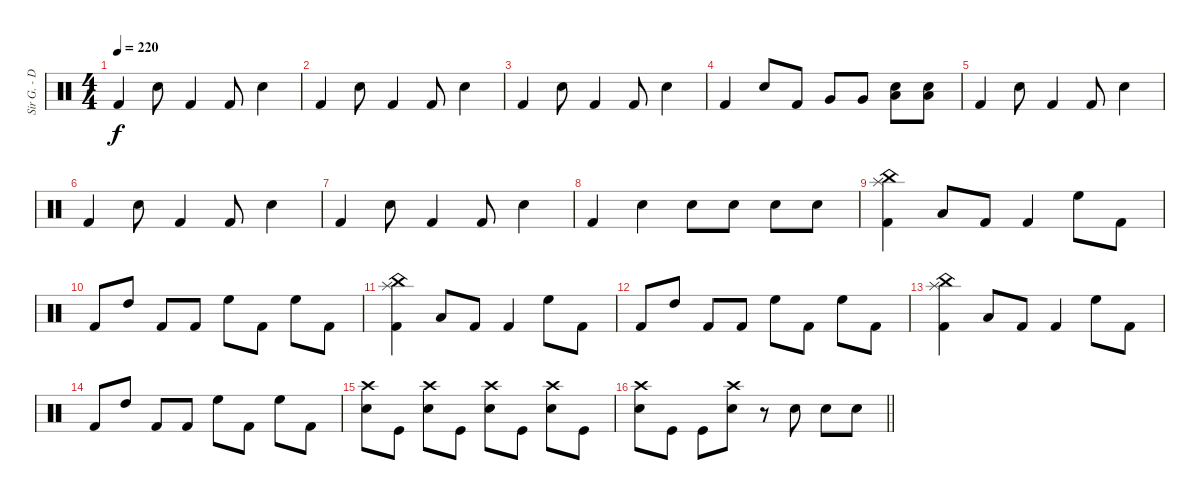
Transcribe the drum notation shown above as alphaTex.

\track ("Sir G. - Drums" "Sir G. - D") {instrument percussion}
\staff {score}
\articulation defaults
\ts (4 4)
\tempo 220
\clef neutral
\ks c "Kick (hit) 2".4{dy f} "Snare (hit) 2".8 "Kick (hit) 2".4 "Kick (hit) 2".8 "Snare (hit) 2".4
|
"Kick (hit) 2".4 "Snare (hit) 2".8 "Kick (hit) 2".4 "Kick (hit) 2".8 "Snare (hit) 2".4 |
"Kick (hit) 2".4 "Snare (hit) 2".8 "Kick (hit) 2".4 "Kick (hit) 2".8 "Snare (hit) 2".4 |
"Kick (hit) 2".4 "Snare (hit) 2".8 "Kick (hit) 2".8 "Very Low Tom (hit)".8 "Very Low Tom (hit)".8 ("Snare (hit) 2" "Low Floor Tom (hit)").8 ("Snare (hit) 2" "Low Floor Tom (hit)").8 |
"Kick (hit) 2".4 "Snare (hit) 2".8 "Kick (hit) 2".4 "Kick (hit) 2".8 "Snare (hit) 2".4 |
"Kick (hit) 2".4 "Snare (hit) 2".8 "Kick (hit) 2".4 "Kick (hit) 2".8 "Snare (hit) 2".4 |
"Kick (hit) 2".4 "Snare (hit) 2".8 "Kick (hit) 2".4 "Kick (hit) 2".8 "Snare (hit) 2".4 |
"Kick (hit) 2".4 "Snare (hit) 2".4 "Snare (hit) 2".8 "Snare (hit) 2".8 "Snare (hit) 2".8 "Snare (hit) 2".8 |
("China (hit)" "Splash (hit)" "Kick (hit) 2").4 "Low Tom (hit)".8 "Kick (hit) 2".8 "Kick (hit) 2".4 "High Floor Tom (hit)".8 "Kick (hit) 2".8 |
"Kick (hit) 2".8 "High Tom (hit)".8 "Kick (hit) 2".8 "Kick (hit) 2".8 "High Floor Tom (hit)".8 "Kick (hit) 2".8 "High Floor Tom (hit)".8 "Kick (hit) 2".8 |
("China (hit)" "Splash (hit)" "Kick (hit) 2").4 "Low Tom (hit)".8 "Kick (hit) 2".8 "Kick (hit) 2".4 "High Floor Tom (hit)".8 "Kick (hit) 2".8 |
"Kick (hit) 2".8 "High Tom (hit)".8 "Kick (hit) 2".8 "Kick (hit) 2".8 "High Floor Tom (hit)".8 "Kick (hit) 2".8 "High Floor Tom (hit)".8 "Kick (hit) 2".8 |
("China (hit)" "Splash (hit)" "Kick (hit) 2").4 "Low Tom (hit)".8 "Kick (hit) 2".8 "Kick (hit) 2".4 "High Floor Tom (hit)".8 "Kick (hit) 2".8 |
"Kick (hit) 2".8 "High Tom (hit)".8 "Kick (hit) 2".8 "Kick (hit) 2".8 "High Floor Tom (hit)".8 "Kick (hit) 2".8 "High Floor Tom (hit)".8 "Kick (hit) 2".8 |
("Crash high (hit)" "Snare (hit) 2").8 "Kick (hit)".8 ("Crash high (hit)" "Snare (hit) 2").8 "Kick (hit)".8 ("Crash high (hit)" "Snare (hit) 2").8 "Kick (hit)".8 ("Crash high (hit)" "Snare (hit) 2").8 "Kick (hit)".8 |
\barLineRight lightlight
("Crash high (hit)" "Snare (hit) 2").8 "Kick (hit)".8 "Kick (hit)".8 ("Crash high (hit)" "Snare (hit) 2").8 r.8 "Snare (hit) 2".8 "Snare (hit) 2".8 "Snare (hit) 2".8
